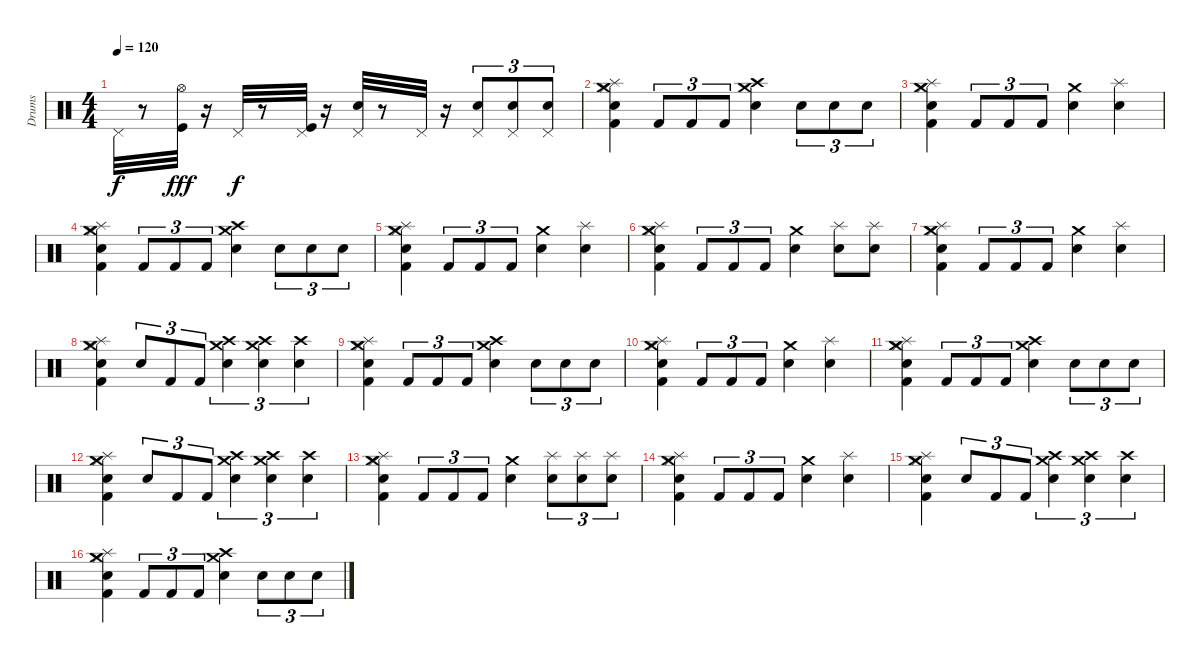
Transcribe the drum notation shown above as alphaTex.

\track ("Drums" "Drums") {instrument percussion}
\staff {score}
\articulation defaults
\ts (4 4)
\tempo 120
\clef neutral
\ks c "Pedal Hi-Hat (hit)".32{dy f}
r.8 ("Kick (hit)" "Hi-Hat (open)").32{dy fff} r.16 "Pedal Hi-Hat (hit)".32{dy f} r.8 ("Kick (hit)" "Pedal Hi-Hat (hit)").32 r.16 ("Electric Snare (hit)" "Pedal Hi-Hat (hit)").32 r.8 "Pedal Hi-Hat (hit)".32 r.16 ("Snare (hit) 2" "Pedal Hi-Hat (hit)").8{tu (3 2)} ("Snare (hit) 2" "Pedal Hi-Hat (hit)").8{tu (3 2)} ("Snare (hit) 2" "Pedal Hi-Hat (hit)").8{tu (3 2)} |
("Hi-Hat (closed)" "Snare (hit) 2" "Kick (hit) 2" "Splash (hit)" "Crash medium (hit)").4 "Kick (hit) 2".8{tu (3 2)} "Kick (hit) 2".8{tu (3 2)} "Kick (hit) 2".8{tu (3 2)} ("Snare (hit) 2" "Crash medium (hit)" "Crash high (hit)").4 "Snare (hit) 2".8{tu (3 2)} "Snare (hit) 2".8{tu (3 2)} "Snare (hit) 2".8{tu (3 2)} |
("Hi-Hat (closed)" "Snare (hit) 2" "Kick (hit) 2" "Splash (hit)" "Crash medium (hit)").4 "Kick (hit) 2".8{tu (3 2)} "Kick (hit) 2".8{tu (3 2)} "Kick (hit) 2".8{tu (3 2)} ("Snare (hit) 2" "Crash medium (hit)").4 ("Snare (hit) 2" "Splash (hit)").4 |
("Hi-Hat (closed)" "Snare (hit) 2" "Kick (hit) 2" "Splash (hit)" "Crash medium (hit)").4 "Kick (hit) 2".8{tu (3 2)} "Kick (hit) 2".8{tu (3 2)} "Kick (hit) 2".8{tu (3 2)} ("Snare (hit) 2" "Crash medium (hit)" "Crash high (hit)").4 "Snare (hit) 2".8{tu (3 2)} "Snare (hit) 2".8{tu (3 2)} "Snare (hit) 2".8{tu (3 2)} |
("Hi-Hat (closed)" "Snare (hit) 2" "Kick (hit) 2" "Splash (hit)" "Crash medium (hit)").4 "Kick (hit) 2".8{tu (3 2)} "Kick (hit) 2".8{tu (3 2)} "Kick (hit) 2".8{tu (3 2)} ("Snare (hit) 2" "Crash medium (hit)").4 ("Snare (hit) 2" "Splash (hit)").4 |
("Hi-Hat (closed)" "Snare (hit) 2" "Kick (hit) 2" "Splash (hit)" "Crash medium (hit)").4 "Kick (hit) 2".8{tu (3 2)} "Kick (hit) 2".8{tu (3 2)} "Kick (hit) 2".8{tu (3 2)} ("Snare (hit) 2" "Crash medium (hit)").4 ("Snare (hit) 2" "Splash (hit)").8 ("Snare (hit) 2" "Splash (hit)").8 |
("Hi-Hat (closed)" "Snare (hit) 2" "Kick (hit) 2" "Splash (hit)" "Crash medium (hit)").4 "Kick (hit) 2".8{tu (3 2)} "Kick (hit) 2".8{tu (3 2)} "Kick (hit) 2".8{tu (3 2)} ("Snare (hit) 2" "Crash medium (hit)").4 ("Snare (hit) 2" "Splash (hit)").4 |
("Hi-Hat (closed)" "Snare (hit) 2" "Kick (hit) 2" "Splash (hit)" "Crash medium (hit)").4 "Snare (hit) 2".8{tu (3 2)} "Kick (hit) 2".8{tu (3 2)} "Kick (hit) 2".8{tu (3 2)} ("Snare (hit) 2" "Crash medium (hit)" "Crash high (hit)").4{tu (3 2)} ("Snare (hit) 2" "Crash medium (hit)" "Crash high (hit)").4{tu (3 2)} ("Snare (hit) 2" "Crash high (hit)").4{tu (3 2)} |
("Hi-Hat (closed)" "Snare (hit) 2" "Kick (hit) 2" "Splash (hit)" "Crash medium (hit)").4 "Kick (hit) 2".8{tu (3 2)} "Kick (hit) 2".8{tu (3 2)} "Kick (hit) 2".8{tu (3 2)} ("Snare (hit) 2" "Crash medium (hit)" "Crash high (hit)").4 "Snare (hit) 2".8{tu (3 2)} "Snare (hit) 2".8{tu (3 2)} "Snare (hit) 2".8{tu (3 2)} |
("Hi-Hat (closed)" "Snare (hit) 2" "Kick (hit) 2" "Splash (hit)" "Crash medium (hit)").4 "Kick (hit) 2".8{tu (3 2)} "Kick (hit) 2".8{tu (3 2)} "Kick (hit) 2".8{tu (3 2)} ("Snare (hit) 2" "Crash medium (hit)").4 ("Snare (hit) 2" "Splash (hit)").4 |
("Hi-Hat (closed)" "Snare (hit) 2" "Kick (hit) 2" "Splash (hit)" "Crash medium (hit)").4 "Kick (hit) 2".8{tu (3 2)} "Kick (hit) 2".8{tu (3 2)} "Kick (hit) 2".8{tu (3 2)} ("Snare (hit) 2" "Crash medium (hit)" "Crash high (hit)").4 "Snare (hit) 2".8{tu (3 2)} "Snare (hit) 2".8{tu (3 2)} "Snare (hit) 2".8{tu (3 2)} |
("Hi-Hat (closed)" "Snare (hit) 2" "Kick (hit) 2" "Splash (hit)" "Crash medium (hit)").4 "Snare (hit) 2".8{tu (3 2)} "Kick (hit) 2".8{tu (3 2)} "Kick (hit) 2".8{tu (3 2)} ("Snare (hit) 2" "Crash medium (hit)" "Crash high (hit)").4{tu (3 2)} ("Snare (hit) 2" "Crash medium (hit)" "Crash high (hit)").4{tu (3 2)} ("Snare (hit) 2" "Crash high (hit)").4{tu (3 2)} |
("Hi-Hat (closed)" "Snare (hit) 2" "Kick (hit) 2" "Splash (hit)" "Crash medium (hit)").4 "Kick (hit) 2".8{tu (3 2)} "Kick (hit) 2".8{tu (3 2)} "Kick (hit) 2".8{tu (3 2)} ("Snare (hit) 2" "Crash medium (hit)").4 ("Snare (hit) 2" "Splash (hit)").8{tu (3 2)} ("Snare (hit) 2" "Splash (hit)").8{tu (3 2)} ("Snare (hit) 2" "Splash (hit)").8{tu (3 2)} |
("Hi-Hat (closed)" "Snare (hit) 2" "Kick (hit) 2" "Splash (hit)" "Crash medium (hit)").4 "Kick (hit) 2".8{tu (3 2)} "Kick (hit) 2".8{tu (3 2)} "Kick (hit) 2".8{tu (3 2)} ("Snare (hit) 2" "Crash medium (hit)").4 ("Snare (hit) 2" "Splash (hit)").4 |
("Hi-Hat (closed)" "Snare (hit) 2" "Kick (hit) 2" "Splash (hit)" "Crash medium (hit)").4 "Snare (hit) 2".8{tu (3 2)} "Kick (hit) 2".8{tu (3 2)} "Kick (hit) 2".8{tu (3 2)} ("Snare (hit) 2" "Crash medium (hit)" "Crash high (hit)").4{tu (3 2)} ("Snare (hit) 2" "Crash medium (hit)" "Crash high (hit)").4{tu (3 2)} ("Snare (hit) 2" "Crash high (hit)").4{tu (3 2)} |
("Hi-Hat (closed)" "Snare (hit) 2" "Kick (hit) 2" "Splash (hit)" "Crash medium (hit)").4 "Kick (hit) 2".8{tu (3 2)} "Kick (hit) 2".8{tu (3 2)} "Kick (hit) 2".8{tu (3 2)} ("Snare (hit) 2" "Crash medium (hit)" "Crash high (hit)").4 "Snare (hit) 2".8{tu (3 2)} "Snare (hit) 2".8{tu (3 2)} "Snare (hit) 2".8{tu (3 2)}
